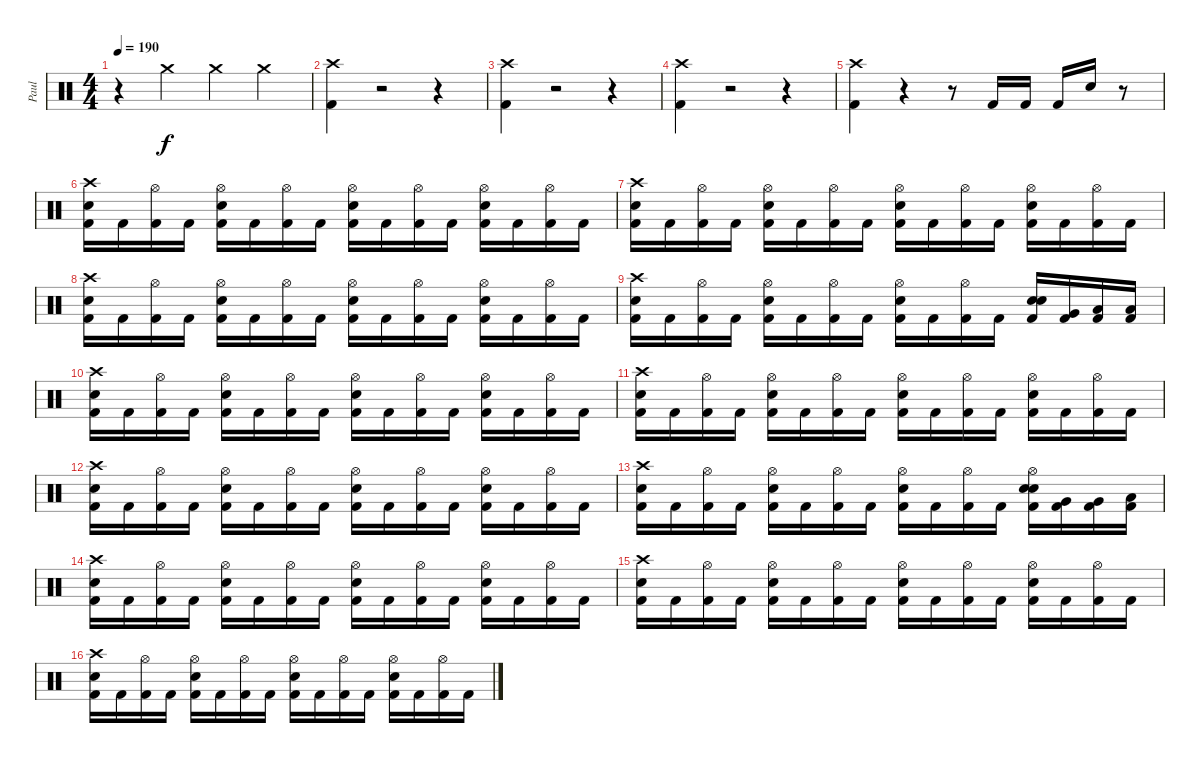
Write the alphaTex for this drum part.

\track ("Paul" "Paul") {instrument percussion}
\staff {score}
\articulation defaults
\ts (4 4)
\tempo 190
\clef neutral
\ks c
r.4{dy f} "Crash medium (hit)".4 "Crash medium (hit)".4 "Crash medium (hit)".4 |
("Crash high (hit)" "Kick (hit) 2").4 r.2 r.4 |
("Crash high (hit)" "Kick (hit) 2").4 r.2 r.4 |
("Crash high (hit)" "Kick (hit) 2").4 r.2 r.4 |
("Crash high (hit)" "Kick (hit) 2").4 r.4 r.8 "Kick (hit) 2".16 "Kick (hit) 2".16 "Kick (hit) 2".16 "Electric Snare (hit)".16 r.8 |
("Crash high (hit)" "Snare (hit) 2" "Kick (hit) 2").16 "Kick (hit) 2".16 ("Hi-Hat (open)" "Kick (hit) 2").16 "Kick (hit) 2".16 ("Hi-Hat (open)" "Snare (hit) 2" "Kick (hit) 2").16 "Kick (hit) 2".16 ("Hi-Hat (open)" "Kick (hit) 2").16 "Kick (hit) 2".16 ("Hi-Hat (open)" "Snare (hit) 2" "Kick (hit) 2").16 "Kick (hit) 2".16 ("Hi-Hat (open)" "Kick (hit) 2").16 "Kick (hit) 2".16 ("Hi-Hat (open)" "Snare (hit) 2" "Kick (hit) 2").16 "Kick (hit) 2".16 ("Hi-Hat (open)" "Kick (hit) 2").16 "Kick (hit) 2".16 |
("Crash high (hit)" "Snare (hit) 2" "Kick (hit) 2").16 "Kick (hit) 2".16 ("Hi-Hat (open)" "Kick (hit) 2").16 "Kick (hit) 2".16 ("Hi-Hat (open)" "Snare (hit) 2" "Kick (hit) 2").16 "Kick (hit) 2".16 ("Hi-Hat (open)" "Kick (hit) 2").16 "Kick (hit) 2".16 ("Hi-Hat (open)" "Snare (hit) 2" "Kick (hit) 2").16 "Kick (hit) 2".16 ("Hi-Hat (open)" "Kick (hit) 2").16 "Kick (hit) 2".16 ("Hi-Hat (open)" "Snare (hit) 2" "Kick (hit) 2").16 "Kick (hit) 2".16 ("Hi-Hat (open)" "Kick (hit) 2").16 "Kick (hit) 2".16 |
("Crash high (hit)" "Snare (hit) 2" "Kick (hit) 2").16 "Kick (hit) 2".16 ("Hi-Hat (open)" "Kick (hit) 2").16 "Kick (hit) 2".16 ("Hi-Hat (open)" "Snare (hit) 2" "Kick (hit) 2").16 "Kick (hit) 2".16 ("Hi-Hat (open)" "Kick (hit) 2").16 "Kick (hit) 2".16 ("Hi-Hat (open)" "Snare (hit) 2" "Kick (hit) 2").16 "Kick (hit) 2".16 ("Hi-Hat (open)" "Kick (hit) 2").16 "Kick (hit) 2".16 ("Hi-Hat (open)" "Snare (hit) 2" "Kick (hit) 2").16 "Kick (hit) 2".16 ("Hi-Hat (open)" "Kick (hit) 2").16 "Kick (hit) 2".16 |
("Crash high (hit)" "Snare (hit) 2" "Kick (hit) 2").16 "Kick (hit) 2".16 ("Hi-Hat (open)" "Kick (hit) 2").16 "Kick (hit) 2".16 ("Hi-Hat (open)" "Snare (hit) 2" "Kick (hit) 2").16 "Kick (hit) 2".16 ("Hi-Hat (open)" "Kick (hit) 2").16 "Kick (hit) 2".16 ("Hi-Hat (open)" "Snare (hit) 2" "Kick (hit) 2").16 "Kick (hit) 2".16 ("Hi-Hat (open)" "Kick (hit) 2").16 "Kick (hit) 2".16 ("Snare (hit) 2" "Snare (hit) 2" "Kick (hit) 2").16 ("Very Low Tom (hit)" "Kick (hit) 2").16 ("Low Floor Tom (hit)" "Kick (hit) 2").16 ("Low Floor Tom (hit)" "Kick (hit) 2").16 |
("Crash high (hit)" "Snare (hit) 2" "Kick (hit) 2").16 "Kick (hit) 2".16 ("Hi-Hat (open)" "Kick (hit) 2").16 "Kick (hit) 2".16 ("Hi-Hat (open)" "Snare (hit) 2" "Kick (hit) 2").16 "Kick (hit) 2".16 ("Hi-Hat (open)" "Kick (hit) 2").16 "Kick (hit) 2".16 ("Hi-Hat (open)" "Snare (hit) 2" "Kick (hit) 2").16 "Kick (hit) 2".16 ("Hi-Hat (open)" "Kick (hit) 2").16 "Kick (hit) 2".16 ("Hi-Hat (open)" "Snare (hit) 2" "Kick (hit) 2").16 "Kick (hit) 2".16 ("Hi-Hat (open)" "Kick (hit) 2").16 "Kick (hit) 2".16 |
("Crash high (hit)" "Snare (hit) 2" "Kick (hit) 2").16 "Kick (hit) 2".16 ("Hi-Hat (open)" "Kick (hit) 2").16 "Kick (hit) 2".16 ("Hi-Hat (open)" "Snare (hit) 2" "Kick (hit) 2").16 "Kick (hit) 2".16 ("Hi-Hat (open)" "Kick (hit) 2").16 "Kick (hit) 2".16 ("Hi-Hat (open)" "Snare (hit) 2" "Kick (hit) 2").16 "Kick (hit) 2".16 ("Hi-Hat (open)" "Kick (hit) 2").16 "Kick (hit) 2".16 ("Hi-Hat (open)" "Snare (hit) 2" "Kick (hit) 2").16 "Kick (hit) 2".16 ("Hi-Hat (open)" "Kick (hit) 2").16 "Kick (hit) 2".16 |
("Crash high (hit)" "Snare (hit) 2" "Kick (hit) 2").16 "Kick (hit) 2".16 ("Hi-Hat (open)" "Kick (hit) 2").16 "Kick (hit) 2".16 ("Hi-Hat (open)" "Snare (hit) 2" "Kick (hit) 2").16 "Kick (hit) 2".16 ("Hi-Hat (open)" "Kick (hit) 2").16 "Kick (hit) 2".16 ("Hi-Hat (open)" "Snare (hit) 2" "Kick (hit) 2").16 "Kick (hit) 2".16 ("Hi-Hat (open)" "Kick (hit) 2").16 "Kick (hit) 2".16 ("Hi-Hat (open)" "Snare (hit) 2" "Kick (hit) 2").16 "Kick (hit) 2".16 ("Hi-Hat (open)" "Kick (hit) 2").16 "Kick (hit) 2".16 |
("Crash high (hit)" "Snare (hit) 2" "Kick (hit) 2").16 "Kick (hit) 2".16 ("Hi-Hat (open)" "Kick (hit) 2").16 "Kick (hit) 2".16 ("Hi-Hat (open)" "Snare (hit) 2" "Kick (hit) 2").16 "Kick (hit) 2".16 ("Hi-Hat (open)" "Kick (hit) 2").16 "Kick (hit) 2".16 ("Hi-Hat (open)" "Snare (hit) 2" "Kick (hit) 2").16 "Kick (hit) 2".16 ("Hi-Hat (open)" "Kick (hit) 2").16 "Kick (hit) 2".16 ("Hi-Hat (open)" "Snare (hit) 2" "Snare (hit) 2" "Kick (hit) 2").16 ("Very Low Tom (hit)" "Kick (hit) 2").16 ("Very Low Tom (hit)" "Kick (hit) 2").16 ("Low Floor Tom (hit)" "Kick (hit) 2").16 |
("Crash high (hit)" "Snare (hit) 2" "Kick (hit) 2").16 "Kick (hit) 2".16 ("Hi-Hat (open)" "Kick (hit) 2").16 "Kick (hit) 2".16 ("Hi-Hat (open)" "Snare (hit) 2" "Kick (hit) 2").16 "Kick (hit) 2".16 ("Hi-Hat (open)" "Kick (hit) 2").16 "Kick (hit) 2".16 ("Hi-Hat (open)" "Snare (hit) 2" "Kick (hit) 2").16 "Kick (hit) 2".16 ("Hi-Hat (open)" "Kick (hit) 2").16 "Kick (hit) 2".16 ("Hi-Hat (open)" "Snare (hit) 2" "Kick (hit) 2").16 "Kick (hit) 2".16 ("Hi-Hat (open)" "Kick (hit) 2").16 "Kick (hit) 2".16 |
("Crash high (hit)" "Snare (hit) 2" "Kick (hit) 2").16 "Kick (hit) 2".16 ("Hi-Hat (open)" "Kick (hit) 2").16 "Kick (hit) 2".16 ("Hi-Hat (open)" "Snare (hit) 2" "Kick (hit) 2").16 "Kick (hit) 2".16 ("Hi-Hat (open)" "Kick (hit) 2").16 "Kick (hit) 2".16 ("Hi-Hat (open)" "Snare (hit) 2" "Kick (hit) 2").16 "Kick (hit) 2".16 ("Hi-Hat (open)" "Kick (hit) 2").16 "Kick (hit) 2".16 ("Hi-Hat (open)" "Snare (hit) 2" "Kick (hit) 2").16 "Kick (hit) 2".16 ("Hi-Hat (open)" "Kick (hit) 2").16 "Kick (hit) 2".16 |
("Crash high (hit)" "Snare (hit) 2" "Kick (hit) 2").16 "Kick (hit) 2".16 ("Hi-Hat (open)" "Kick (hit) 2").16 "Kick (hit) 2".16 ("Hi-Hat (open)" "Snare (hit) 2" "Kick (hit) 2").16 "Kick (hit) 2".16 ("Hi-Hat (open)" "Kick (hit) 2").16 "Kick (hit) 2".16 ("Hi-Hat (open)" "Snare (hit) 2" "Kick (hit) 2").16 "Kick (hit) 2".16 ("Hi-Hat (open)" "Kick (hit) 2").16 "Kick (hit) 2".16 ("Hi-Hat (open)" "Snare (hit) 2" "Kick (hit) 2").16 "Kick (hit) 2".16 ("Hi-Hat (open)" "Kick (hit) 2").16 "Kick (hit) 2".16
